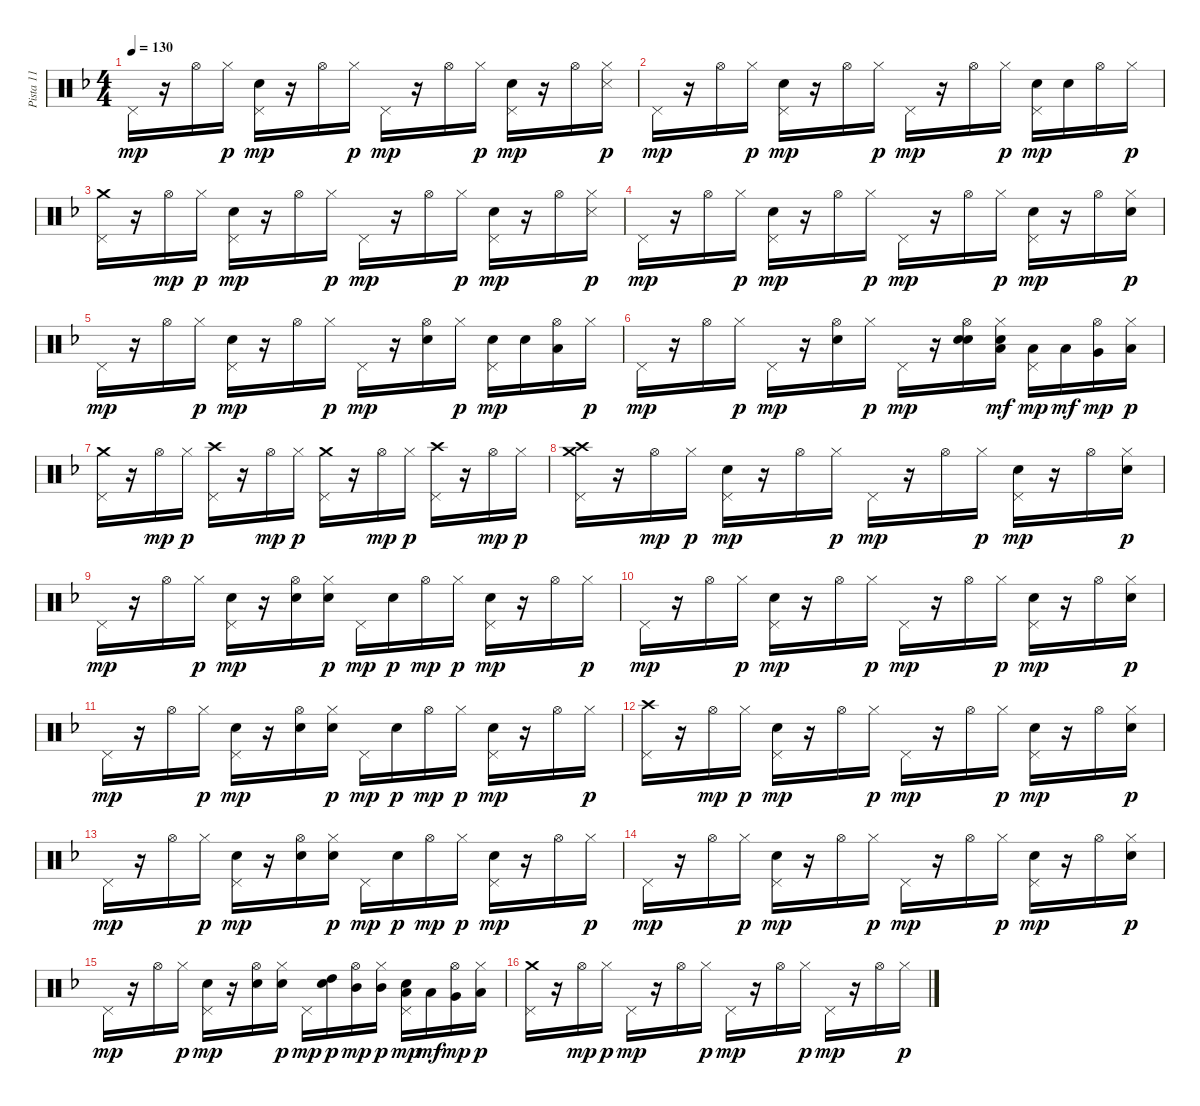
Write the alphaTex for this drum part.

\track ("Pista 11" "Pista 11") {instrument percussion}
\staff {score}
\articulation defaults
\ts (4 4)
\tempo 130
\clef neutral
\ks dminor "Pedal Hi-Hat (hit)".16{dy mp}
r.16 "Hi-Hat (open)".16 "Hi-Hat (closed)".16{dy p} ("Snare (hit) 2" "Pedal Hi-Hat (hit)").16{dy mp} r.16 "Hi-Hat (open)".16 "Hi-Hat (closed)".16{dy p} "Pedal Hi-Hat (hit)".16{dy mp} r.16 "Hi-Hat (open)".16 "Hi-Hat (closed)".16{dy p} ("Snare (hit) 2" "Pedal Hi-Hat (hit)").16{dy mp} r.16 "Hi-Hat (open)".16 ("Snare (side stick) 3" "Hi-Hat (closed)").16{dy p} |
"Pedal Hi-Hat (hit)".16{dy mp} r.16 "Hi-Hat (open)".16 "Hi-Hat (closed)".16{dy p} ("Snare (hit) 2" "Pedal Hi-Hat (hit)").16{dy mp} r.16 "Hi-Hat (open)".16 "Hi-Hat (closed)".16{dy p} "Pedal Hi-Hat (hit)".16{dy mp} r.16 "Hi-Hat (open)".16 "Hi-Hat (closed)".16{dy p} ("Snare (hit) 2" "Pedal Hi-Hat (hit)").16{dy mp} "Snare (hit) 2".16 "Hi-Hat (open)".16 "Hi-Hat (closed)".16{dy p} |
("Pedal Hi-Hat (hit)" "Crash medium (hit)").16 r.16 "Hi-Hat (open)".16{dy mp} "Hi-Hat (closed)".16{dy p} ("Snare (hit) 2" "Pedal Hi-Hat (hit)").16{dy mp} r.16 "Hi-Hat (open)".16 "Hi-Hat (closed)".16{dy p} "Pedal Hi-Hat (hit)".16{dy mp} r.16 "Hi-Hat (open)".16 "Hi-Hat (closed)".16{dy p} ("Snare (hit) 2" "Pedal Hi-Hat (hit)").16{dy mp} r.16 "Hi-Hat (open)".16 ("Snare (side stick) 3" "Hi-Hat (closed)").16{dy p} |
"Pedal Hi-Hat (hit)".16{dy mp} r.16 "Hi-Hat (open)".16 "Hi-Hat (closed)".16{dy p} ("Snare (hit) 2" "Pedal Hi-Hat (hit)").16{dy mp} r.16 "Hi-Hat (open)".16 "Hi-Hat (closed)".16{dy p} "Pedal Hi-Hat (hit)".16{dy mp} r.16 "Hi-Hat (open)".16 "Hi-Hat (closed)".16{dy p} ("Snare (hit) 2" "Pedal Hi-Hat (hit)").16{dy mp} r.16 "Hi-Hat (open)".16 ("Electric Snare (hit)" "Hi-Hat (closed)").16{dy p} |
"Pedal Hi-Hat (hit)".16{dy mp} r.16 "Hi-Hat (open)".16 "Hi-Hat (closed)".16{dy p} ("Snare (hit) 2" "Pedal Hi-Hat (hit)").16{dy mp} r.16 "Hi-Hat (open)".16 "Hi-Hat (closed)".16{dy p} "Pedal Hi-Hat (hit)".16{dy mp} r.16 ("Snare (hit) 2" "Hi-Hat (open)").16 "Hi-Hat (closed)".16{dy p} ("Snare (hit) 2" "Pedal Hi-Hat (hit)").16{dy mp} "Snare (hit) 2".16 ("Low Floor Tom (hit)" "Hi-Hat (open)").16 "Hi-Hat (closed)".16{dy p} |
"Pedal Hi-Hat (hit)".16{dy mp} r.16 "Hi-Hat (open)".16 "Hi-Hat (closed)".16{dy p} "Pedal Hi-Hat (hit)".16{dy mp} r.16 ("Snare (hit) 2" "Hi-Hat (open)").16 "Hi-Hat (closed)".16{dy p} "Pedal Hi-Hat (hit)".16{dy mp} r.16 ("Snare (hit) 2" "Hi-Hat (open)" "Snare (hit) 2").16 ("Snare (hit) 2" "Hi-Hat (closed)" "Low Tom (hit)").16{dy mf} ("Low Tom (hit)" "Pedal Hi-Hat (hit)").16{dy mp} "Low Tom (hit)".16{dy mf} ("Very Low Tom (hit)" "Hi-Hat (open)").16{dy mp} ("Low Floor Tom (hit)" "Hi-Hat (closed)").16{dy p} |
("Pedal Hi-Hat (hit)" "Crash medium (hit)").16 r.16 "Hi-Hat (open)".16{dy mp} "Hi-Hat (closed)".16{dy p} ("Pedal Hi-Hat (hit)" "Crash high (hit)").16 r.16 "Hi-Hat (open)".16{dy mp} "Hi-Hat (closed)".16{dy p} ("Pedal Hi-Hat (hit)" "Crash medium (hit)").16 r.16 "Hi-Hat (open)".16{dy mp} "Hi-Hat (closed)".16{dy p} ("Pedal Hi-Hat (hit)" "Crash high (hit)").16 r.16 "Hi-Hat (open)".16{dy mp} "Hi-Hat (closed)".16{dy p} |
("Pedal Hi-Hat (hit)" "Crash high (hit)" "Crash medium (hit)").16 r.16 "Hi-Hat (open)".16{dy mp} "Hi-Hat (closed)".16{dy p} ("Snare (hit) 2" "Pedal Hi-Hat (hit)").16{dy mp} r.16 "Hi-Hat (open)".16 "Hi-Hat (closed)".16{dy p} "Pedal Hi-Hat (hit)".16{dy mp} r.16 "Hi-Hat (open)".16 "Hi-Hat (closed)".16{dy p} ("Snare (hit) 2" "Pedal Hi-Hat (hit)").16{dy mp} r.16 "Hi-Hat (open)".16 ("Electric Snare (hit)" "Hi-Hat (closed)").16{dy p} |
"Pedal Hi-Hat (hit)".16{dy mp} r.16 "Hi-Hat (open)".16 "Hi-Hat (closed)".16{dy p} ("Snare (hit) 2" "Pedal Hi-Hat (hit)").16{dy mp} r.16 ("Snare (hit) 2" "Hi-Hat (open)").16 ("Electric Snare (hit)" "Hi-Hat (closed)").16{dy p} "Pedal Hi-Hat (hit)".16{dy mp} "Snare (hit) 2".16{dy p} "Hi-Hat (open)".16{dy mp} "Hi-Hat (closed)".16{dy p} ("Snare (hit) 2" "Pedal Hi-Hat (hit)").16{dy mp} r.16 "Hi-Hat (open)".16 "Hi-Hat (closed)".16{dy p} |
"Pedal Hi-Hat (hit)".16{dy mp} r.16 "Hi-Hat (open)".16 "Hi-Hat (closed)".16{dy p} ("Snare (hit) 2" "Pedal Hi-Hat (hit)").16{dy mp} r.16 "Hi-Hat (open)".16 "Hi-Hat (closed)".16{dy p} "Pedal Hi-Hat (hit)".16{dy mp} r.16 "Hi-Hat (open)".16 "Hi-Hat (closed)".16{dy p} ("Snare (hit) 2" "Pedal Hi-Hat (hit)").16{dy mp} r.16 "Hi-Hat (open)".16 ("Electric Snare (hit)" "Hi-Hat (closed)").16{dy p} |
"Pedal Hi-Hat (hit)".16{dy mp} r.16 "Hi-Hat (open)".16 "Hi-Hat (closed)".16{dy p} ("Snare (hit) 2" "Pedal Hi-Hat (hit)").16{dy mp} r.16 ("Snare (hit) 2" "Hi-Hat (open)").16 ("Electric Snare (hit)" "Hi-Hat (closed)").16{dy p} "Pedal Hi-Hat (hit)".16{dy mp} "Snare (hit) 2".16{dy p} "Hi-Hat (open)".16{dy mp} "Hi-Hat (closed)".16{dy p} ("Snare (hit) 2" "Pedal Hi-Hat (hit)").16{dy mp} r.16 "Hi-Hat (open)".16 "Hi-Hat (closed)".16{dy p} |
("Pedal Hi-Hat (hit)" "Crash high (hit)").16 r.16 "Hi-Hat (open)".16{dy mp} "Hi-Hat (closed)".16{dy p} ("Snare (hit) 2" "Pedal Hi-Hat (hit)").16{dy mp} r.16 "Hi-Hat (open)".16 "Hi-Hat (closed)".16{dy p} "Pedal Hi-Hat (hit)".16{dy mp} r.16 "Hi-Hat (open)".16 "Hi-Hat (closed)".16{dy p} ("Snare (hit) 2" "Pedal Hi-Hat (hit)").16{dy mp} r.16 "Hi-Hat (open)".16 ("Electric Snare (hit)" "Hi-Hat (closed)").16{dy p} |
"Pedal Hi-Hat (hit)".16{dy mp} r.16 "Hi-Hat (open)".16 "Hi-Hat (closed)".16{dy p} ("Snare (hit) 2" "Pedal Hi-Hat (hit)").16{dy mp} r.16 ("Snare (hit) 2" "Hi-Hat (open)").16 ("Electric Snare (hit)" "Hi-Hat (closed)").16{dy p} "Pedal Hi-Hat (hit)".16{dy mp} "Snare (hit) 2".16{dy p} "Hi-Hat (open)".16{dy mp} "Hi-Hat (closed)".16{dy p} ("Snare (hit) 2" "Pedal Hi-Hat (hit)").16{dy mp} r.16 "Hi-Hat (open)".16 "Hi-Hat (closed)".16{dy p} |
"Pedal Hi-Hat (hit)".16{dy mp} r.16 "Hi-Hat (open)".16 "Hi-Hat (closed)".16{dy p} ("Snare (hit) 2" "Pedal Hi-Hat (hit)").16{dy mp} r.16 "Hi-Hat (open)".16 "Hi-Hat (closed)".16{dy p} "Pedal Hi-Hat (hit)".16{dy mp} r.16 "Hi-Hat (open)".16 "Hi-Hat (closed)".16{dy p} ("Snare (hit) 2" "Pedal Hi-Hat (hit)").16{dy mp} r.16 "Hi-Hat (open)".16 ("Electric Snare (hit)" "Hi-Hat (closed)").16{dy p} |
"Pedal Hi-Hat (hit)".16{dy mp} r.16 "Hi-Hat (open)".16 "Hi-Hat (closed)".16{dy p} ("Snare (hit) 2" "Pedal Hi-Hat (hit)").16{dy mp} r.16 ("Snare (hit) 2" "Hi-Hat (open)").16 ("Electric Snare (hit)" "Hi-Hat (closed)").16{dy p} "Pedal Hi-Hat (hit)".16{dy mp} ("High Tom (hit)" "Snare (hit) 2").16{dy p} ("Mid Tom (hit)" "Hi-Hat (open)").16{dy mp} ("Mid Tom (hit)" "Hi-Hat (closed)").16{dy p} ("Low Tom (hit)" "Snare (hit) 2" "Pedal Hi-Hat (hit)").16{dy mp} "Low Tom (hit)".16{dy mf} ("Very Low Tom (hit)" "Hi-Hat (open)").16{dy mp} ("Low Floor Tom (hit)" "Hi-Hat (closed)").16{dy p} |
("Pedal Hi-Hat (hit)" "Crash medium (hit)").16 r.16 "Hi-Hat (open)".16{dy mp} "Hi-Hat (closed)".16{dy p} "Pedal Hi-Hat (hit)".16{dy mp} r.16 "Hi-Hat (open)".16 "Hi-Hat (closed)".16{dy p} "Pedal Hi-Hat (hit)".16{dy mp} r.16 "Hi-Hat (open)".16 "Hi-Hat (closed)".16{dy p} "Pedal Hi-Hat (hit)".16{dy mp} r.16 "Hi-Hat (open)".16 "Hi-Hat (closed)".16{dy p}
